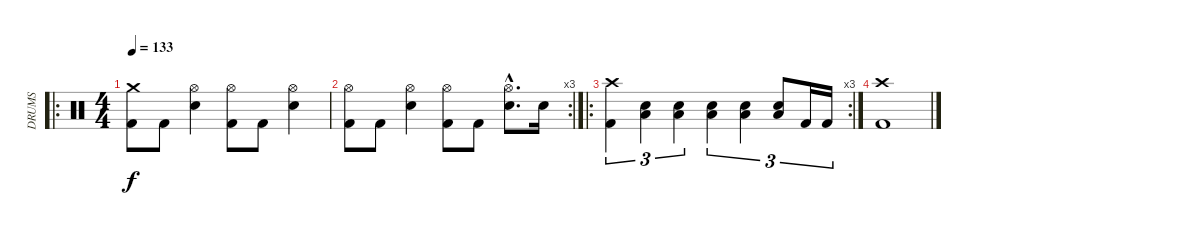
\track ("DRUMS" "DRUMS") {instrument percussion}
\staff {score}
\articulation defaults
\ro
\ts (4 4)
\tempo 133
\clef neutral
\ks c
("Crash medium (hit)" "Kick (hit) 2").8{dy f} "Kick (hit) 2".8 ("Hi-Hat (open)" "Electric Snare (hit)").4 ("Hi-Hat (open)" "Kick (hit) 2").8 "Kick (hit) 2".8 ("Hi-Hat (open)" "Electric Snare (hit)").4 |
\rc 3
("Hi-Hat (open)" "Kick (hit) 2").8 "Kick (hit) 2".8 ("Hi-Hat (open)" "Electric Snare (hit)").4 ("Hi-Hat (open)" "Kick (hit) 2").8 "Kick (hit) 2".8 ("Hi-Hat (open)"{hac} "Electric Snare (hit)"{hac}).8{d} "Electric Snare (hit)".16 |
\ro
\rc 3
("Crash high (hit)" "Kick (hit) 2").4{tu (3 2)} ("Low Floor Tom (hit)" "Electric Snare (hit)").4{tu (3 2)} ("Low Floor Tom (hit)" "Electric Snare (hit)").4{tu (3 2)} ("Low Floor Tom (hit)" "Electric Snare (hit)").4{tu (3 2)} ("Low Floor Tom (hit)" "Electric Snare (hit)").4{tu (3 2)} ("Low Floor Tom (hit)" "Electric Snare (hit)").8{tu (3 2)} "Kick (hit) 2".16{tu (3 2)} "Kick (hit) 2".16{tu (3 2)} |
("Crash high (hit)" "Kick (hit) 2").1
